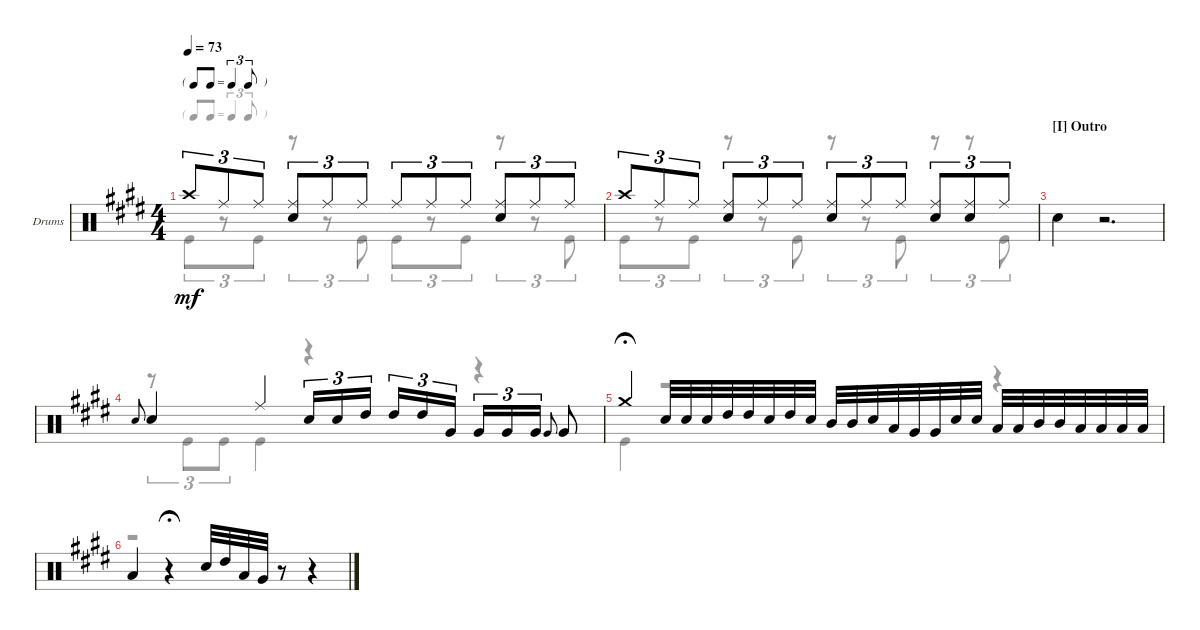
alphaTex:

\defaultSystemsLayout 4
\bracketExtendMode groupsimilarinstruments
\firstSystemTrackNameOrientation horizontal
\otherSystemsTrackNameOrientation horizontal
\track ("Drumkit" "Drums") {instrument percussion}
\staff {score}
\articulation defaults
\voice
\ts (4 4)
\tf triplet8th
\tempo 73
\clef neutral
\ks e "Crash high (hit)".8{tu (3 2) dy mf} "Ride (middle)".8{tu (3 2)} "Ride (middle)".8{tu (3 2)}
("Ride (middle)" "Snare (hit) 2").8{tu (3 2)} "Ride (middle)".8{tu (3 2)} "Ride (middle)".8{tu (3 2)} "Ride (middle)".8{tu (3 2)} "Ride (middle)".8{tu (3 2)} "Ride (middle)".8{tu (3 2)} ("Ride (middle)" "Snare (hit) 2").8{tu (3 2)} "Ride (middle)".8{tu (3 2)} "Ride (middle)".8{tu (3 2)} |
"Crash high (hit)".8{tu (3 2)} "Ride (middle)".8{tu (3 2)} "Ride (middle)".8{tu (3 2)} ("Ride (middle)" "Snare (hit) 2").8{tu (3 2)} "Ride (middle)".8{tu (3 2)} "Ride (middle)".8{tu (3 2)} ("Ride (middle)" "Snare (hit) 2").8{tu (3 2)} "Ride (middle)".8{tu (3 2)} "Ride (middle)".8{tu (3 2)} ("Ride (middle)" "Snare (hit) 2").8{tu (3 2)} ("Snare (hit) 2" "Ride (middle)").8{tu (3 2)} "Ride (middle)".8{tu (3 2)} |
\section ("I" "Outro")
"Snare (hit) 2".4 r.2{d} |
"Snare (hit) 2".8{gr onbeat} "Snare (hit) 2".4 "Ride (middle)".4 "Snare (hit) 2".16{tu (3 2)} "Snare (hit) 2".16{tu (3 2)} "High Tom (hit)".16{tu (3 2)} "High Tom (hit)".16{tu (3 2)} "High Tom (hit)".16{tu (3 2)} "Very Low Tom (hit)".16{tu (3 2)} "Very Low Tom (hit)".16{tu (3 2)} "Very Low Tom (hit)".16{tu (3 2)} "Very Low Tom (hit)".16{tu (3 2)} "Very Low Tom (hit)".8{gr onbeat} "Very Low Tom (hit)".8 |
"Crash medium (hit)".4{fermata (medium 0.5)} "Snare (hit) 2".32 "Snare (hit) 2".32 "Snare (hit) 2".32 "High Tom (hit)".32 "High Tom (hit)".32 "Snare (hit) 2".32 "High Tom (hit)".32 "Snare (hit) 2".32 "Mid Tom (hit)".32 "Mid Tom (hit)".32 "Snare (hit) 2".32 "Low Tom (hit)".32 "Very Low Tom (hit)".32 "Very Low Tom (hit)".32 "Snare (hit) 2".32 "Snare (hit) 2".32 "Low Tom (hit)".32 "Low Tom (hit)".32 "Mid Tom (hit)".32 "Mid Tom (hit)".32 "Low Tom (hit)".32 "Low Tom (hit)".32 "Low Tom (hit)".32 "Low Tom (hit)".32 |
"Low Tom (hit)".4 r.4{fermata (medium 0.5)} "Snare (hit) 2".32 "High Tom (hit)".32 "Low Tom (hit)".32 "Very Low Tom (hit)".32 r.8 r.4
\voice
\clef neutral
\ottava regular
\simile none
\ks e "Kick (hit)".8{tu (3 2) dy mf}
r.8{tu (3 2)} "Kick (hit)".8{tu (3 2)} r.8{tu (3 2)} r.8{tu (3 2)} "Kick (hit)".8{tu (3 2)} "Kick (hit)".8{tu (3 2)} r.8{tu (3 2)} "Kick (hit)".8{tu (3 2)} r.8{tu (3 2)} r.8{tu (3 2)} "Kick (hit)".8{tu (3 2)} |
"Kick (hit)".8{tu (3 2)} r.8{tu (3 2)} "Kick (hit)".8{tu (3 2)} r.8{tu (3 2)} r.8{tu (3 2)} "Kick (hit)".8{tu (3 2)} r.8{tu (3 2)} r.8{tu (3 2)} "Kick (hit)".8{tu (3 2)} r.8{tu (3 2)} r.8{tu (3 2)} "Kick (hit)".8{tu (3 2)} |
|
r.8{tu (3 2)} "Kick (hit)".8{tu (3 2)} "Kick (hit)".8{tu (3 2)} "Kick (hit)".4 r.4 r.4 |
"Kick (hit)".4{fermata (medium 0.5)} r.2 r.4 |
r.1
